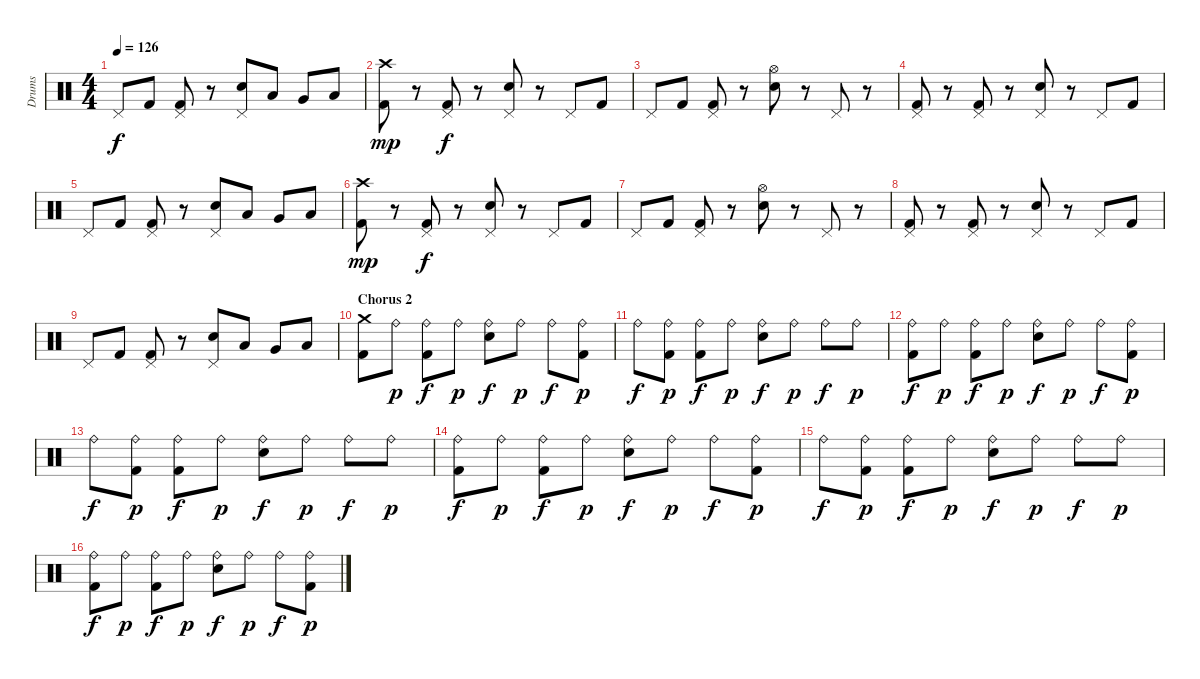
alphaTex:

\track ("Drums" "Drums") {instrument percussion}
\staff {score}
\articulation defaults
\ts (4 4)
\tempo 126
\clef neutral
\ks c "Pedal Hi-Hat (hit)".8{dy f} "Kick (hit) 2".8
("Pedal Hi-Hat (hit)" "Kick (hit) 2").8 r.8 ("Pedal Hi-Hat (hit)" "Electric Snare (hit)").8 "Low Tom (hit)".8 "Very Low Tom (hit)".8 "Low Floor Tom (hit)".8 |
("Crash high (hit)" "Kick (hit) 2").8{dy mp} r.8 ("Pedal Hi-Hat (hit)" "Kick (hit) 2").8{dy f} r.8 ("Pedal Hi-Hat (hit)" "Electric Snare (hit)").8 r.8 "Pedal Hi-Hat (hit)".8 "Kick (hit) 2".8 |
"Pedal Hi-Hat (hit)".8 "Kick (hit) 2".8 ("Pedal Hi-Hat (hit)" "Kick (hit) 2").8 r.8 ("Hi-Hat (open)" "Electric Snare (hit)").8 r.8 "Pedal Hi-Hat (hit)".8 r.8 |
("Pedal Hi-Hat (hit)" "Kick (hit) 2").8 r.8 ("Pedal Hi-Hat (hit)" "Kick (hit) 2").8 r.8 ("Pedal Hi-Hat (hit)" "Electric Snare (hit)").8 r.8 "Pedal Hi-Hat (hit)".8 "Kick (hit) 2".8 |
"Pedal Hi-Hat (hit)".8 "Kick (hit) 2".8 ("Pedal Hi-Hat (hit)" "Kick (hit) 2").8 r.8 ("Pedal Hi-Hat (hit)" "Electric Snare (hit)").8 "Low Tom (hit)".8 "Very Low Tom (hit)".8 "Low Floor Tom (hit)".8 |
("Crash high (hit)" "Kick (hit) 2").8{dy mp} r.8 ("Pedal Hi-Hat (hit)" "Kick (hit) 2").8{dy f} r.8 ("Pedal Hi-Hat (hit)" "Electric Snare (hit)").8 r.8 "Pedal Hi-Hat (hit)".8 "Kick (hit) 2".8 |
"Pedal Hi-Hat (hit)".8 "Kick (hit) 2".8 ("Pedal Hi-Hat (hit)" "Kick (hit) 2").8 r.8 ("Hi-Hat (open)" "Electric Snare (hit)").8 r.8 "Pedal Hi-Hat (hit)".8 r.8 |
("Pedal Hi-Hat (hit)" "Kick (hit) 2").8 r.8 ("Pedal Hi-Hat (hit)" "Kick (hit) 2").8 r.8 ("Pedal Hi-Hat (hit)" "Electric Snare (hit)").8 r.8 "Pedal Hi-Hat (hit)".8 "Kick (hit) 2".8 |
"Pedal Hi-Hat (hit)".8 "Kick (hit) 2".8 ("Pedal Hi-Hat (hit)" "Kick (hit) 2").8 r.8 ("Pedal Hi-Hat (hit)" "Electric Snare (hit)").8 "Low Tom (hit)".8 "Very Low Tom (hit)".8 "Low Floor Tom (hit)".8 |
\section ("" "Chorus 2")
("Crash medium (hit)" "Kick (hit) 2").8 "Ride (bell)".8{dy p} ("Ride (bell)" "Kick (hit) 2").8{dy f} "Ride (bell)".8{dy p} ("Ride (bell)" "Electric Snare (hit)").8{dy f} "Ride (bell)".8{dy p} "Ride (bell)".8{dy f} ("Ride (bell)" "Kick (hit) 2").8{dy p} |
"Ride (bell)".8{dy f} ("Ride (bell)" "Kick (hit) 2").8{dy p} ("Ride (bell)" "Kick (hit) 2").8{dy f} "Ride (bell)".8{dy p} ("Ride (bell)" "Electric Snare (hit)").8{dy f} "Ride (bell)".8{dy p} "Ride (bell)".8{dy f} "Ride (bell)".8{dy p} |
("Ride (bell)" "Kick (hit) 2").8{dy f} "Ride (bell)".8{dy p} ("Ride (bell)" "Kick (hit) 2").8{dy f} "Ride (bell)".8{dy p} ("Ride (bell)" "Electric Snare (hit)").8{dy f} "Ride (bell)".8{dy p} "Ride (bell)".8{dy f} ("Ride (bell)" "Kick (hit) 2").8{dy p} |
"Ride (bell)".8{dy f} ("Ride (bell)" "Kick (hit) 2").8{dy p} ("Ride (bell)" "Kick (hit) 2").8{dy f} "Ride (bell)".8{dy p} ("Ride (bell)" "Electric Snare (hit)").8{dy f} "Ride (bell)".8{dy p} "Ride (bell)".8{dy f} "Ride (bell)".8{dy p} |
("Ride (bell)" "Kick (hit) 2").8{dy f} "Ride (bell)".8{dy p} ("Ride (bell)" "Kick (hit) 2").8{dy f} "Ride (bell)".8{dy p} ("Ride (bell)" "Electric Snare (hit)").8{dy f} "Ride (bell)".8{dy p} "Ride (bell)".8{dy f} ("Ride (bell)" "Kick (hit) 2").8{dy p} |
"Ride (bell)".8{dy f} ("Ride (bell)" "Kick (hit) 2").8{dy p} ("Ride (bell)" "Kick (hit) 2").8{dy f} "Ride (bell)".8{dy p} ("Ride (bell)" "Electric Snare (hit)").8{dy f} "Ride (bell)".8{dy p} "Ride (bell)".8{dy f} "Ride (bell)".8{dy p} |
("Ride (bell)" "Kick (hit) 2").8{dy f} "Ride (bell)".8{dy p} ("Ride (bell)" "Kick (hit) 2").8{dy f} "Ride (bell)".8{dy p} ("Ride (bell)" "Electric Snare (hit)").8{dy f} "Ride (bell)".8{dy p} "Ride (bell)".8{dy f} ("Ride (bell)" "Kick (hit) 2").8{dy p}
